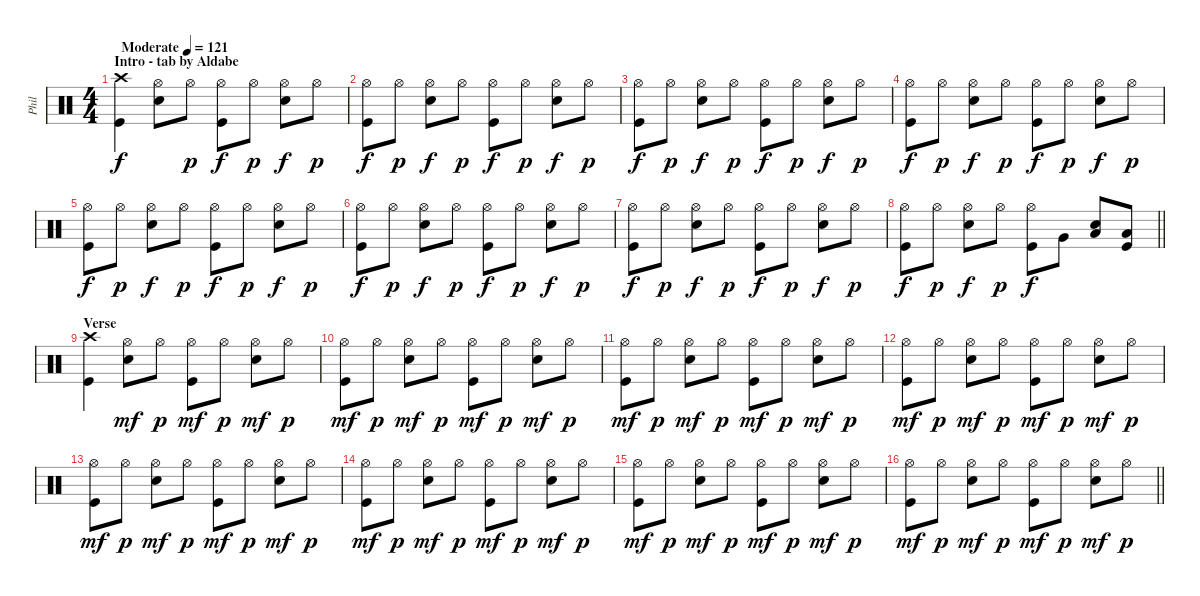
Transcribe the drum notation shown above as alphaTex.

\track ("Phil" "Phil") {instrument percussion}
\staff {score}
\articulation defaults
\ts (4 4)
\section ("" "Intro - tab by Aldabe")
\tempo (121 "Moderate")
\clef neutral
\ks c
("Crash high (hit)" "Kick (hit)").4{dy f} ("Hi-Hat (open)" "Snare (hit) 2").8 "Hi-Hat (open)".8{dy p} ("Hi-Hat (open)" "Kick (hit)").8{dy f} "Hi-Hat (open)".8{dy p} ("Hi-Hat (open)" "Snare (hit) 2").8{dy f} "Hi-Hat (open)".8{dy p} |
("Hi-Hat (open)" "Kick (hit)").8{dy f} "Hi-Hat (open)".8{dy p} ("Hi-Hat (open)" "Snare (hit) 2").8{dy f} "Hi-Hat (open)".8{dy p} ("Hi-Hat (open)" "Kick (hit)").8{dy f} "Hi-Hat (open)".8{dy p} ("Hi-Hat (open)" "Snare (hit) 2").8{dy f} "Hi-Hat (open)".8{dy p} |
("Hi-Hat (open)" "Kick (hit)").8{dy f} "Hi-Hat (open)".8{dy p} ("Hi-Hat (open)" "Snare (hit) 2").8{dy f} "Hi-Hat (open)".8{dy p} ("Hi-Hat (open)" "Kick (hit)").8{dy f} "Hi-Hat (open)".8{dy p} ("Hi-Hat (open)" "Snare (hit) 2").8{dy f} "Hi-Hat (open)".8{dy p} |
("Hi-Hat (open)" "Kick (hit)").8{dy f} "Hi-Hat (open)".8{dy p} ("Hi-Hat (open)" "Snare (hit) 2").8{dy f} "Hi-Hat (open)".8{dy p} ("Hi-Hat (open)" "Kick (hit)").8{dy f} "Hi-Hat (open)".8{dy p} ("Hi-Hat (open)" "Snare (hit) 2").8{dy f} "Hi-Hat (open)".8{dy p} |
("Hi-Hat (open)" "Kick (hit)").8{dy f} "Hi-Hat (open)".8{dy p} ("Hi-Hat (open)" "Snare (hit) 2").8{dy f} "Hi-Hat (open)".8{dy p} ("Hi-Hat (open)" "Kick (hit)").8{dy f} "Hi-Hat (open)".8{dy p} ("Hi-Hat (open)" "Snare (hit) 2").8{dy f} "Hi-Hat (open)".8{dy p} |
("Hi-Hat (open)" "Kick (hit)").8{dy f} "Hi-Hat (open)".8{dy p} ("Hi-Hat (open)" "Snare (hit) 2").8{dy f} "Hi-Hat (open)".8{dy p} ("Hi-Hat (open)" "Kick (hit)").8{dy f} "Hi-Hat (open)".8{dy p} ("Hi-Hat (open)" "Snare (hit) 2").8{dy f} "Hi-Hat (open)".8{dy p} |
("Hi-Hat (open)" "Kick (hit)").8{dy f} "Hi-Hat (open)".8{dy p} ("Hi-Hat (open)" "Snare (hit) 2").8{dy f} "Hi-Hat (open)".8{dy p} ("Hi-Hat (open)" "Kick (hit)").8{dy f} "Hi-Hat (open)".8{dy p} ("Hi-Hat (open)" "Snare (hit) 2").8{dy f} "Hi-Hat (open)".8{dy p} |
\barLineRight lightlight
("Hi-Hat (open)" "Kick (hit)").8{dy f} "Hi-Hat (open)".8{dy p} ("Hi-Hat (open)" "Snare (hit) 2").8{dy f} "Hi-Hat (open)".8{dy p} ("Hi-Hat (open)" "Kick (hit)").8{dy f} "Very Low Tom (hit)".8 ("Low Tom (hit)" "Snare (hit) 2").8 ("Low Floor Tom (hit)" "Kick (hit)").8 |
\section ("" "Verse")
("Crash high (hit)" "Kick (hit)").4 ("Hi-Hat (open)" "Snare (hit) 2").8{dy mf} "Hi-Hat (open)".8{dy p} ("Hi-Hat (open)" "Kick (hit)").8{dy mf} "Hi-Hat (open)".8{dy p} ("Hi-Hat (open)" "Snare (hit) 2").8{dy mf} "Hi-Hat (open)".8{dy p} |
("Hi-Hat (open)" "Kick (hit)").8{dy mf} "Hi-Hat (open)".8{dy p} ("Hi-Hat (open)" "Snare (hit) 2").8{dy mf} "Hi-Hat (open)".8{dy p} ("Hi-Hat (open)" "Kick (hit)").8{dy mf} "Hi-Hat (open)".8{dy p} ("Hi-Hat (open)" "Snare (hit) 2").8{dy mf} "Hi-Hat (open)".8{dy p} |
("Hi-Hat (open)" "Kick (hit)").8{dy mf} "Hi-Hat (open)".8{dy p} ("Hi-Hat (open)" "Snare (hit) 2").8{dy mf} "Hi-Hat (open)".8{dy p} ("Hi-Hat (open)" "Kick (hit)").8{dy mf} "Hi-Hat (open)".8{dy p} ("Hi-Hat (open)" "Snare (hit) 2").8{dy mf} "Hi-Hat (open)".8{dy p} |
("Hi-Hat (open)" "Kick (hit)").8{dy mf} "Hi-Hat (open)".8{dy p} ("Hi-Hat (open)" "Snare (hit) 2").8{dy mf} "Hi-Hat (open)".8{dy p} ("Hi-Hat (open)" "Kick (hit)").8{dy mf} "Hi-Hat (open)".8{dy p} ("Hi-Hat (open)" "Snare (hit) 2").8{dy mf} "Hi-Hat (open)".8{dy p} |
("Hi-Hat (open)" "Kick (hit)").8{dy mf} "Hi-Hat (open)".8{dy p} ("Hi-Hat (open)" "Snare (hit) 2").8{dy mf} "Hi-Hat (open)".8{dy p} ("Hi-Hat (open)" "Kick (hit)").8{dy mf} "Hi-Hat (open)".8{dy p} ("Hi-Hat (open)" "Snare (hit) 2").8{dy mf} "Hi-Hat (open)".8{dy p} |
("Hi-Hat (open)" "Kick (hit)").8{dy mf} "Hi-Hat (open)".8{dy p} ("Hi-Hat (open)" "Snare (hit) 2").8{dy mf} "Hi-Hat (open)".8{dy p} ("Hi-Hat (open)" "Kick (hit)").8{dy mf} "Hi-Hat (open)".8{dy p} ("Hi-Hat (open)" "Snare (hit) 2").8{dy mf} "Hi-Hat (open)".8{dy p} |
("Hi-Hat (open)" "Kick (hit)").8{dy mf} "Hi-Hat (open)".8{dy p} ("Hi-Hat (open)" "Snare (hit) 2").8{dy mf} "Hi-Hat (open)".8{dy p} ("Hi-Hat (open)" "Kick (hit)").8{dy mf} "Hi-Hat (open)".8{dy p} ("Hi-Hat (open)" "Snare (hit) 2").8{dy mf} "Hi-Hat (open)".8{dy p} |
\barLineRight lightlight
("Hi-Hat (open)" "Kick (hit)").8{dy mf} "Hi-Hat (open)".8{dy p} ("Hi-Hat (open)" "Snare (hit) 2").8{dy mf} "Hi-Hat (open)".8{dy p} ("Hi-Hat (open)" "Kick (hit)").8{dy mf} "Hi-Hat (open)".8{dy p} ("Hi-Hat (open)" "Snare (hit) 2").8{dy mf} "Hi-Hat (open)".8{dy p}
